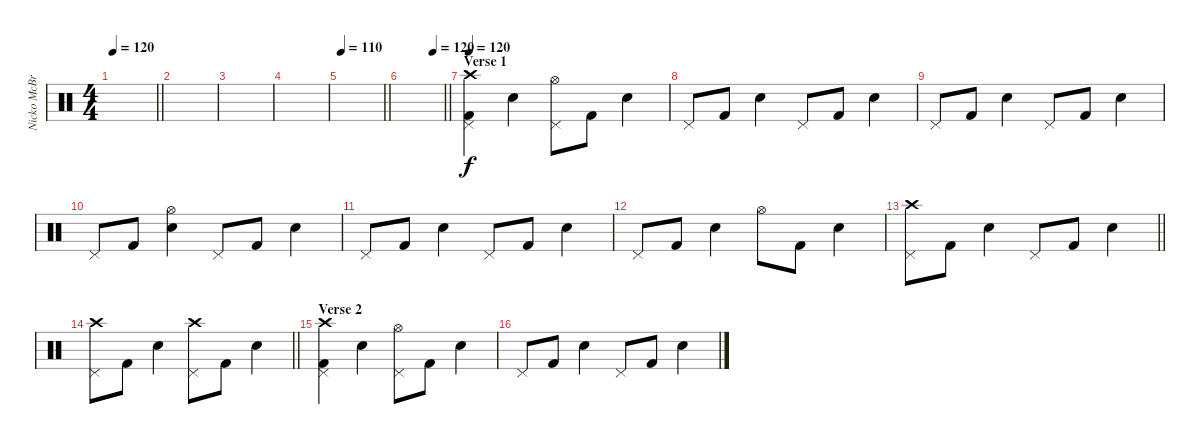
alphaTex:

\track ("Nicko McBrain" "Nicko McBr") {instrument percussion}
\staff {score}
\articulation defaults
\ts (4 4)
\tempo 120
\clef neutral
\barLineRight lightlight
\ks c
|
|
|
|
\tempo 110
\barLineRight lightlight
|
\tempo (120 0.75)
\barLineRight lightlight
|
\section ("" "Verse 1")
\tempo 120
("Crash high (hit)" "Pedal Hi-Hat (hit)" "Kick (hit) 2").4 "Electric Snare (hit)".4 ("Hi-Hat (open)" "Pedal Hi-Hat (hit)").8 "Kick (hit) 2".8 "Electric Snare (hit)".4 |
"Pedal Hi-Hat (hit)".8 "Kick (hit) 2".8 "Electric Snare (hit)".4 "Pedal Hi-Hat (hit)".8 "Kick (hit) 2".8 "Electric Snare (hit)".4 |
"Pedal Hi-Hat (hit)".8 "Kick (hit) 2".8 "Electric Snare (hit)".4 "Pedal Hi-Hat (hit)".8 "Kick (hit) 2".8 "Electric Snare (hit)".4 |
"Pedal Hi-Hat (hit)".8 "Kick (hit) 2".8 ("Hi-Hat (open)" "Electric Snare (hit)").4 "Pedal Hi-Hat (hit)".8 "Kick (hit) 2".8 "Electric Snare (hit)".4 |
"Pedal Hi-Hat (hit)".8 "Kick (hit) 2".8 "Electric Snare (hit)".4 "Pedal Hi-Hat (hit)".8 "Kick (hit) 2".8 "Electric Snare (hit)".4 |
"Pedal Hi-Hat (hit)".8 "Kick (hit) 2".8 "Electric Snare (hit)".4 "Hi-Hat (open)".8 "Kick (hit) 2".8 "Electric Snare (hit)".4 |
\barLineRight lightlight
("Crash high (hit)" "Pedal Hi-Hat (hit)").8 "Kick (hit) 2".8 "Electric Snare (hit)".4 "Pedal Hi-Hat (hit)".8 "Kick (hit) 2".8 "Electric Snare (hit)".4 |
\barLineRight lightlight
("Crash high (hit)" "Pedal Hi-Hat (hit)").8 "Kick (hit) 2".8 "Electric Snare (hit)".4 ("Crash high (hit)" "Pedal Hi-Hat (hit)").8 "Kick (hit) 2".8 "Electric Snare (hit)".4 |
\section ("" "Verse 2")
("Crash high (hit)" "Pedal Hi-Hat (hit)" "Kick (hit) 2").4 "Electric Snare (hit)".4 ("Hi-Hat (open)" "Pedal Hi-Hat (hit)").8 "Kick (hit) 2".8 "Electric Snare (hit)".4 |
"Pedal Hi-Hat (hit)".8 "Kick (hit) 2".8 "Electric Snare (hit)".4 "Pedal Hi-Hat (hit)".8 "Kick (hit) 2".8 "Electric Snare (hit)".4
